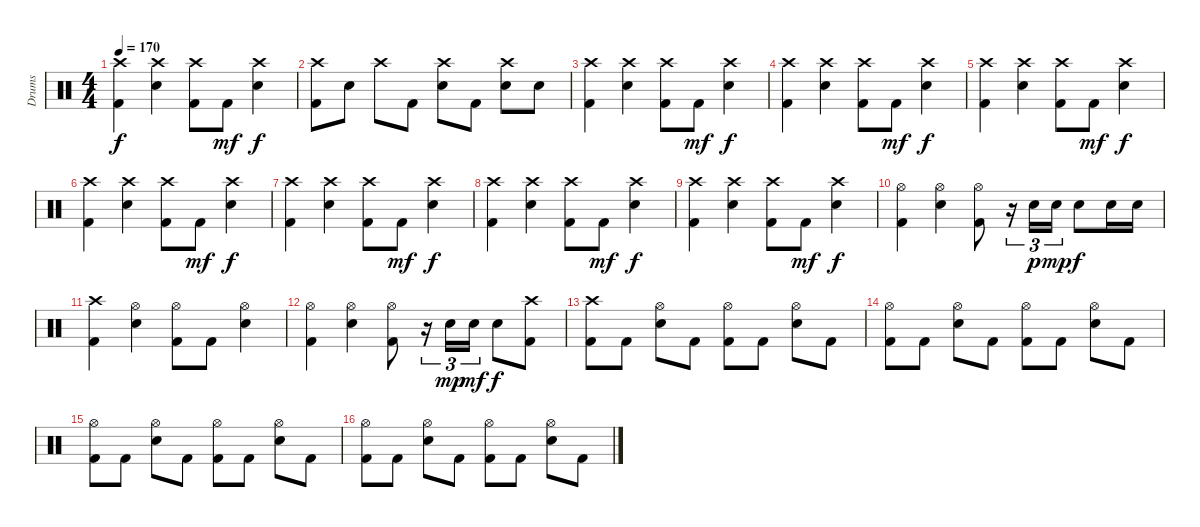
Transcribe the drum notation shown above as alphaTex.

\track ("Drums" "Drums") {instrument percussion}
\staff {score}
\articulation defaults
\ts (4 4)
\tempo 170
\clef neutral
\ks c
("Crash high (hit)" "Kick (hit) 2").4{dy f} ("Crash high (hit)" "Snare (hit) 2").4 ("Crash high (hit)" "Kick (hit) 2").8 "Kick (hit) 2".8{dy mf} ("Crash high (hit)" "Snare (hit) 2").4{dy f} |
("Crash high (hit)" "Kick (hit) 2").8 "Snare (hit) 2".8 "Crash high (hit)".8 "Kick (hit) 2".8 ("Crash high (hit)" "Snare (hit) 2").8 "Kick (hit) 2".8 ("Crash high (hit)" "Snare (hit) 2").8 "Snare (hit) 2".8 |
("Crash high (hit)" "Kick (hit) 2").4 ("Crash high (hit)" "Snare (hit) 2").4 ("Crash high (hit)" "Kick (hit) 2").8 "Kick (hit) 2".8{dy mf} ("Crash high (hit)" "Snare (hit) 2").4{dy f} |
("Crash high (hit)" "Kick (hit) 2").4 ("Crash high (hit)" "Snare (hit) 2").4 ("Crash high (hit)" "Kick (hit) 2").8 "Kick (hit) 2".8{dy mf} ("Crash high (hit)" "Snare (hit) 2").4{dy f} |
("Crash high (hit)" "Kick (hit) 2").4 ("Crash high (hit)" "Snare (hit) 2").4 ("Crash high (hit)" "Kick (hit) 2").8 "Kick (hit) 2".8{dy mf} ("Crash high (hit)" "Snare (hit) 2").4{dy f} |
("Crash high (hit)" "Kick (hit) 2").4 ("Crash high (hit)" "Snare (hit) 2").4 ("Crash high (hit)" "Kick (hit) 2").8 "Kick (hit) 2".8{dy mf} ("Crash high (hit)" "Snare (hit) 2").4{dy f} |
("Crash high (hit)" "Kick (hit) 2").4 ("Crash high (hit)" "Snare (hit) 2").4 ("Crash high (hit)" "Kick (hit) 2").8 "Kick (hit) 2".8{dy mf} ("Crash high (hit)" "Snare (hit) 2").4{dy f} |
("Crash high (hit)" "Kick (hit) 2").4 ("Crash high (hit)" "Snare (hit) 2").4 ("Crash high (hit)" "Kick (hit) 2").8 "Kick (hit) 2".8{dy mf} ("Crash high (hit)" "Snare (hit) 2").4{dy f} |
("Crash high (hit)" "Kick (hit) 2").4 ("Crash high (hit)" "Snare (hit) 2").4 ("Crash high (hit)" "Kick (hit) 2").8 "Kick (hit) 2".8{dy mf} ("Crash high (hit)" "Snare (hit) 2").4{dy f} |
("Hi-Hat (open)" "Kick (hit) 2").4 ("Hi-Hat (open)" "Snare (hit) 2").4 ("Hi-Hat (open)" "Kick (hit) 2").8 r.16{tu (3 2)} "Snare (hit) 2".16{tu (3 2) dy p} "Snare (hit) 2".16{tu (3 2) dy mp} "Snare (hit) 2".8{dy f} "Snare (hit) 2".16 "Snare (hit) 2".16 |
("Crash high (hit)" "Kick (hit) 2").4 ("Hi-Hat (open)" "Snare (hit) 2").4 ("Hi-Hat (open)" "Kick (hit) 2").8 "Kick (hit) 2".8 ("Hi-Hat (open)" "Snare (hit) 2").4 |
("Hi-Hat (open)" "Kick (hit) 2").4 ("Hi-Hat (open)" "Snare (hit) 2").4 ("Hi-Hat (open)" "Kick (hit) 2").8 r.16{tu (3 2)} "Snare (hit) 2".16{tu (3 2) dy mp} "Snare (hit) 2".16{tu (3 2) dy mf} "Snare (hit) 2".8{dy f} ("Crash high (hit)" "Kick (hit) 2").8 |
("Crash high (hit)" "Kick (hit) 2").8 "Kick (hit) 2".8 ("Hi-Hat (open)" "Snare (hit) 2").8 "Kick (hit) 2".8 ("Hi-Hat (open)" "Kick (hit) 2").8 "Kick (hit) 2".8 ("Hi-Hat (open)" "Snare (hit) 2").8 "Kick (hit) 2".8 |
("Hi-Hat (open)" "Kick (hit) 2").8 "Kick (hit) 2".8 ("Hi-Hat (open)" "Snare (hit) 2").8 "Kick (hit) 2".8 ("Hi-Hat (open)" "Kick (hit) 2").8 "Kick (hit) 2".8 ("Hi-Hat (open)" "Snare (hit) 2").8 "Kick (hit) 2".8 |
("Hi-Hat (open)" "Kick (hit) 2").8 "Kick (hit) 2".8 ("Hi-Hat (open)" "Snare (hit) 2").8 "Kick (hit) 2".8 ("Hi-Hat (open)" "Kick (hit) 2").8 "Kick (hit) 2".8 ("Hi-Hat (open)" "Snare (hit) 2").8 "Kick (hit) 2".8 |
("Hi-Hat (open)" "Kick (hit) 2").8 "Kick (hit) 2".8 ("Hi-Hat (open)" "Snare (hit) 2").8 "Kick (hit) 2".8 ("Hi-Hat (open)" "Kick (hit) 2").8 "Kick (hit) 2".8 ("Hi-Hat (open)" "Snare (hit) 2").8 "Kick (hit) 2".8
